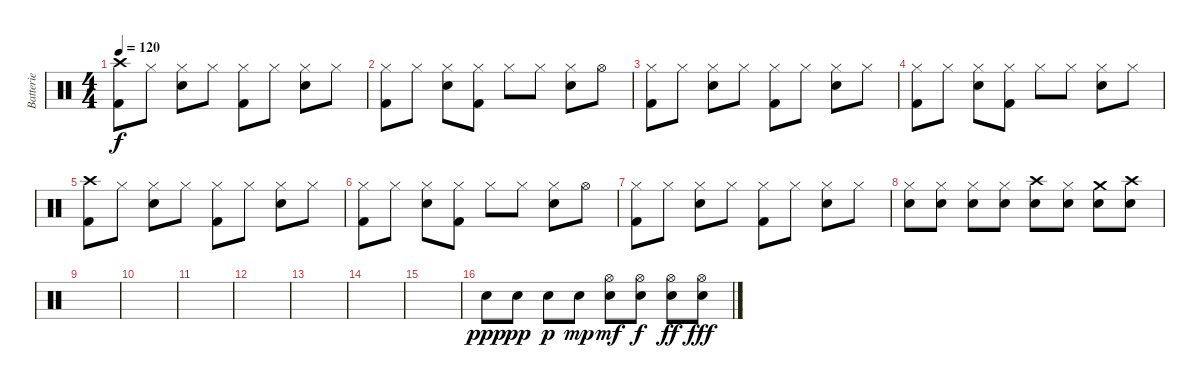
\track ("Batterie" "Batterie") {instrument percussion}
\staff {score}
\articulation defaults
\ts (4 4)
\tempo 120
\clef neutral
\ks c
("Crash high (hit)" "Kick (hit) 2").8{dy f} "Hi-Hat (closed)".8 ("Hi-Hat (closed)" "Electric Snare (hit)").8 "Hi-Hat (closed)".8 ("Hi-Hat (closed)" "Kick (hit) 2").8 "Hi-Hat (closed)".8 ("Hi-Hat (closed)" "Electric Snare (hit)").8 "Hi-Hat (closed)".8 |
("Hi-Hat (closed)" "Kick (hit) 2").8 "Hi-Hat (closed)".8 ("Hi-Hat (closed)" "Electric Snare (hit)").8 ("Hi-Hat (closed)" "Kick (hit) 2").8 "Hi-Hat (closed)".8 "Hi-Hat (closed)".8 ("Hi-Hat (closed)" "Electric Snare (hit)").8 "Hi-Hat (open)".8 |
("Hi-Hat (closed)" "Kick (hit) 2").8 "Hi-Hat (closed)".8 ("Hi-Hat (closed)" "Electric Snare (hit)").8 "Hi-Hat (closed)".8 ("Hi-Hat (closed)" "Kick (hit) 2").8 "Hi-Hat (closed)".8 ("Hi-Hat (closed)" "Electric Snare (hit)").8 "Hi-Hat (closed)".8 |
("Hi-Hat (closed)" "Kick (hit) 2").8 "Hi-Hat (closed)".8 ("Hi-Hat (closed)" "Electric Snare (hit)").8 ("Hi-Hat (closed)" "Kick (hit) 2").8 "Hi-Hat (closed)".8 "Hi-Hat (closed)".8 ("Hi-Hat (closed)" "Electric Snare (hit)").8 "Hi-Hat (closed)".8 |
("Crash high (hit)" "Kick (hit) 2").8 "Hi-Hat (closed)".8 ("Hi-Hat (closed)" "Electric Snare (hit)").8 "Hi-Hat (closed)".8 ("Hi-Hat (closed)" "Kick (hit) 2").8 "Hi-Hat (closed)".8 ("Hi-Hat (closed)" "Electric Snare (hit)").8 "Hi-Hat (closed)".8 |
("Hi-Hat (closed)" "Kick (hit) 2").8 "Hi-Hat (closed)".8 ("Hi-Hat (closed)" "Electric Snare (hit)").8 ("Hi-Hat (closed)" "Kick (hit) 2").8 "Hi-Hat (closed)".8 "Hi-Hat (closed)".8 ("Hi-Hat (closed)" "Electric Snare (hit)").8 "Hi-Hat (open)".8 |
("Hi-Hat (closed)" "Kick (hit) 2").8 "Hi-Hat (closed)".8 ("Hi-Hat (closed)" "Electric Snare (hit)").8 "Hi-Hat (closed)".8 ("Hi-Hat (closed)" "Kick (hit) 2").8 "Hi-Hat (closed)".8 ("Hi-Hat (closed)" "Electric Snare (hit)").8 "Hi-Hat (closed)".8 |
("Hi-Hat (closed)" "Electric Snare (hit)").8 ("Hi-Hat (closed)" "Electric Snare (hit)").8 ("Hi-Hat (closed)" "Electric Snare (hit)").8 ("Hi-Hat (closed)" "Electric Snare (hit)").8 ("Crash high (hit)" "Electric Snare (hit)").8 ("Hi-Hat (closed)" "Electric Snare (hit)").8 ("Crash medium (hit)" "Electric Snare (hit)").8 ("Crash high (hit)" "Electric Snare (hit)").8 |
|
|
|
|
|
|
|
"Electric Snare (hit)".8{dy ppp} "Electric Snare (hit)".8{dy pp} "Electric Snare (hit)".8{dy p} "Electric Snare (hit)".8{dy mp} ("Hi-Hat (open)" "Electric Snare (hit)").8{dy mf} ("Hi-Hat (open)" "Electric Snare (hit)").8{dy f} ("Hi-Hat (open)" "Electric Snare (hit)").8{dy ff} ("Hi-Hat (open)" "Electric Snare (hit)").8{dy fff}
